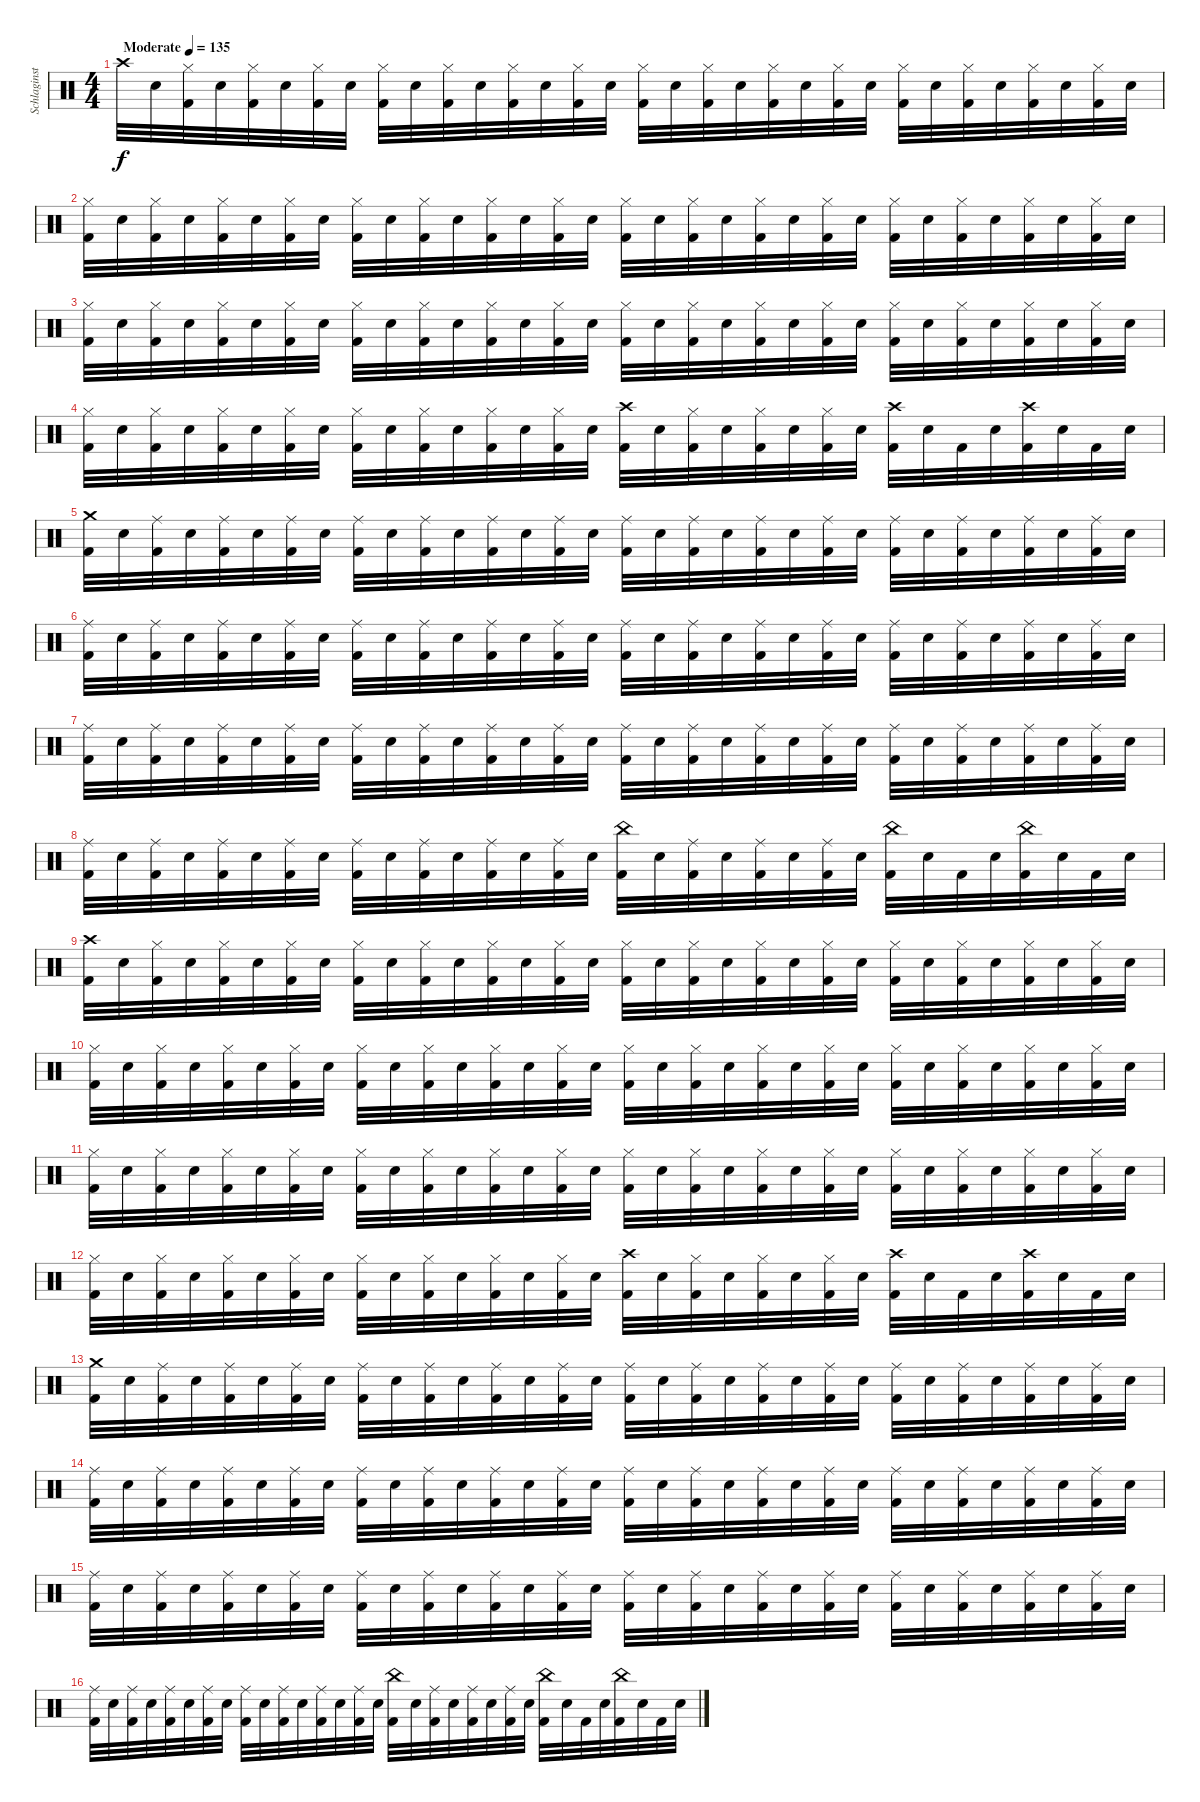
\track ("Schlaginstrumente - Auswahl" "Schlaginst") {instrument percussion}
\staff {score}
\articulation defaults
\ts (4 4)
\tempo (135 "Moderate")
\clef neutral
\ks c "Crash high (hit)".32{dy f} "Electric Snare (hit)".32
("Hi-Hat (closed)" "Kick (hit) 2").32 "Electric Snare (hit)".32 ("Hi-Hat (closed)" "Kick (hit) 2").32 "Electric Snare (hit)".32 ("Hi-Hat (closed)" "Kick (hit) 2").32 "Electric Snare (hit)".32 ("Hi-Hat (closed)" "Kick (hit) 2").32 "Electric Snare (hit)".32 ("Hi-Hat (closed)" "Kick (hit) 2").32 "Electric Snare (hit)".32 ("Hi-Hat (closed)" "Kick (hit) 2").32 "Electric Snare (hit)".32 ("Hi-Hat (closed)" "Kick (hit) 2").32 "Electric Snare (hit)".32 ("Hi-Hat (closed)" "Kick (hit) 2").32 "Electric Snare (hit)".32 ("Hi-Hat (closed)" "Kick (hit) 2").32 "Electric Snare (hit)".32 ("Hi-Hat (closed)" "Kick (hit) 2").32 "Electric Snare (hit)".32 ("Hi-Hat (closed)" "Kick (hit) 2").32 "Electric Snare (hit)".32 ("Hi-Hat (closed)" "Kick (hit) 2").32 "Electric Snare (hit)".32 ("Hi-Hat (closed)" "Kick (hit) 2").32 "Electric Snare (hit)".32 ("Hi-Hat (closed)" "Kick (hit) 2").32 "Electric Snare (hit)".32 ("Hi-Hat (closed)" "Kick (hit) 2").32 "Electric Snare (hit)".32 |
("Hi-Hat (closed)" "Kick (hit) 2").32 "Electric Snare (hit)".32 ("Hi-Hat (closed)" "Kick (hit) 2").32 "Electric Snare (hit)".32 ("Hi-Hat (closed)" "Kick (hit) 2").32 "Electric Snare (hit)".32 ("Hi-Hat (closed)" "Kick (hit) 2").32 "Electric Snare (hit)".32 ("Hi-Hat (closed)" "Kick (hit) 2").32 "Electric Snare (hit)".32 ("Hi-Hat (closed)" "Kick (hit) 2").32 "Electric Snare (hit)".32 ("Hi-Hat (closed)" "Kick (hit) 2").32 "Electric Snare (hit)".32 ("Hi-Hat (closed)" "Kick (hit) 2").32 "Electric Snare (hit)".32 ("Hi-Hat (closed)" "Kick (hit) 2").32 "Electric Snare (hit)".32 ("Hi-Hat (closed)" "Kick (hit) 2").32 "Electric Snare (hit)".32 ("Hi-Hat (closed)" "Kick (hit) 2").32 "Electric Snare (hit)".32 ("Hi-Hat (closed)" "Kick (hit) 2").32 "Electric Snare (hit)".32 ("Hi-Hat (closed)" "Kick (hit) 2").32 "Electric Snare (hit)".32 ("Hi-Hat (closed)" "Kick (hit) 2").32 "Electric Snare (hit)".32 ("Hi-Hat (closed)" "Kick (hit) 2").32 "Electric Snare (hit)".32 ("Hi-Hat (closed)" "Kick (hit) 2").32 "Electric Snare (hit)".32 |
("Hi-Hat (closed)" "Kick (hit) 2").32 "Electric Snare (hit)".32 ("Hi-Hat (closed)" "Kick (hit) 2").32 "Electric Snare (hit)".32 ("Hi-Hat (closed)" "Kick (hit) 2").32 "Electric Snare (hit)".32 ("Hi-Hat (closed)" "Kick (hit) 2").32 "Electric Snare (hit)".32 ("Hi-Hat (closed)" "Kick (hit) 2").32 "Electric Snare (hit)".32 ("Hi-Hat (closed)" "Kick (hit) 2").32 "Electric Snare (hit)".32 ("Hi-Hat (closed)" "Kick (hit) 2").32 "Electric Snare (hit)".32 ("Hi-Hat (closed)" "Kick (hit) 2").32 "Electric Snare (hit)".32 ("Hi-Hat (closed)" "Kick (hit) 2").32 "Electric Snare (hit)".32 ("Hi-Hat (closed)" "Kick (hit) 2").32 "Electric Snare (hit)".32 ("Hi-Hat (closed)" "Kick (hit) 2").32 "Electric Snare (hit)".32 ("Hi-Hat (closed)" "Kick (hit) 2").32 "Electric Snare (hit)".32 ("Hi-Hat (closed)" "Kick (hit) 2").32 "Electric Snare (hit)".32 ("Hi-Hat (closed)" "Kick (hit) 2").32 "Electric Snare (hit)".32 ("Hi-Hat (closed)" "Kick (hit) 2").32 "Electric Snare (hit)".32 ("Hi-Hat (closed)" "Kick (hit) 2").32 "Electric Snare (hit)".32 |
("Hi-Hat (closed)" "Kick (hit) 2").32 "Electric Snare (hit)".32 ("Hi-Hat (closed)" "Kick (hit) 2").32 "Electric Snare (hit)".32 ("Hi-Hat (closed)" "Kick (hit) 2").32 "Electric Snare (hit)".32 ("Hi-Hat (closed)" "Kick (hit) 2").32 "Electric Snare (hit)".32 ("Hi-Hat (closed)" "Kick (hit) 2").32 "Electric Snare (hit)".32 ("Hi-Hat (closed)" "Kick (hit) 2").32 "Electric Snare (hit)".32 ("Hi-Hat (closed)" "Kick (hit) 2").32 "Electric Snare (hit)".32 ("Hi-Hat (closed)" "Kick (hit) 2").32 "Electric Snare (hit)".32 ("Crash high (hit)" "Kick (hit) 2").32 "Electric Snare (hit)".32 ("Hi-Hat (closed)" "Kick (hit) 2").32 "Electric Snare (hit)".32 ("Hi-Hat (closed)" "Kick (hit) 2").32 "Electric Snare (hit)".32 ("Hi-Hat (closed)" "Kick (hit) 2").32 "Electric Snare (hit)".32 ("Crash high (hit)" "Kick (hit) 2").32 "Electric Snare (hit)".32 "Kick (hit) 2".32 "Electric Snare (hit)".32 ("Crash high (hit)" "Kick (hit) 2").32 "Electric Snare (hit)".32 "Kick (hit) 2".32 "Electric Snare (hit)".32 |
("Crash medium (hit)" "Kick (hit) 2").32 "Electric Snare (hit)".32 ("Ride (middle)" "Kick (hit) 2").32 "Electric Snare (hit)".32 ("Ride (middle)" "Kick (hit) 2").32 "Electric Snare (hit)".32 ("Ride (middle)" "Kick (hit) 2").32 "Electric Snare (hit)".32 ("Ride (middle)" "Kick (hit) 2").32 "Electric Snare (hit)".32 ("Ride (middle)" "Kick (hit) 2").32 "Electric Snare (hit)".32 ("Ride (middle)" "Kick (hit) 2").32 "Electric Snare (hit)".32 ("Ride (middle)" "Kick (hit) 2").32 "Electric Snare (hit)".32 ("Ride (middle)" "Kick (hit) 2").32 "Electric Snare (hit)".32 ("Ride (middle)" "Kick (hit) 2").32 "Electric Snare (hit)".32 ("Ride (middle)" "Kick (hit) 2").32 "Electric Snare (hit)".32 ("Ride (middle)" "Kick (hit) 2").32 "Electric Snare (hit)".32 ("Ride (middle)" "Kick (hit) 2").32 "Electric Snare (hit)".32 ("Ride (middle)" "Kick (hit) 2").32 "Electric Snare (hit)".32 ("Ride (middle)" "Kick (hit) 2").32 "Electric Snare (hit)".32 ("Ride (middle)" "Kick (hit) 2").32 "Electric Snare (hit)".32 |
("Ride (middle)" "Kick (hit) 2").32 "Electric Snare (hit)".32 ("Ride (middle)" "Kick (hit) 2").32 "Electric Snare (hit)".32 ("Ride (middle)" "Kick (hit) 2").32 "Electric Snare (hit)".32 ("Ride (middle)" "Kick (hit) 2").32 "Electric Snare (hit)".32 ("Ride (middle)" "Kick (hit) 2").32 "Electric Snare (hit)".32 ("Ride (middle)" "Kick (hit) 2").32 "Electric Snare (hit)".32 ("Ride (middle)" "Kick (hit) 2").32 "Electric Snare (hit)".32 ("Ride (middle)" "Kick (hit) 2").32 "Electric Snare (hit)".32 ("Ride (middle)" "Kick (hit) 2").32 "Electric Snare (hit)".32 ("Ride (middle)" "Kick (hit) 2").32 "Electric Snare (hit)".32 ("Ride (middle)" "Kick (hit) 2").32 "Electric Snare (hit)".32 ("Ride (middle)" "Kick (hit) 2").32 "Electric Snare (hit)".32 ("Ride (middle)" "Kick (hit) 2").32 "Electric Snare (hit)".32 ("Ride (middle)" "Kick (hit) 2").32 "Electric Snare (hit)".32 ("Ride (middle)" "Kick (hit) 2").32 "Electric Snare (hit)".32 ("Ride (middle)" "Kick (hit) 2").32 "Electric Snare (hit)".32 |
("Ride (middle)" "Kick (hit) 2").32 "Electric Snare (hit)".32 ("Ride (middle)" "Kick (hit) 2").32 "Electric Snare (hit)".32 ("Ride (middle)" "Kick (hit) 2").32 "Electric Snare (hit)".32 ("Ride (middle)" "Kick (hit) 2").32 "Electric Snare (hit)".32 ("Ride (middle)" "Kick (hit) 2").32 "Electric Snare (hit)".32 ("Ride (middle)" "Kick (hit) 2").32 "Electric Snare (hit)".32 ("Ride (middle)" "Kick (hit) 2").32 "Electric Snare (hit)".32 ("Ride (middle)" "Kick (hit) 2").32 "Electric Snare (hit)".32 ("Ride (middle)" "Kick (hit) 2").32 "Electric Snare (hit)".32 ("Ride (middle)" "Kick (hit) 2").32 "Electric Snare (hit)".32 ("Ride (middle)" "Kick (hit) 2").32 "Electric Snare (hit)".32 ("Ride (middle)" "Kick (hit) 2").32 "Electric Snare (hit)".32 ("Ride (middle)" "Kick (hit) 2").32 "Electric Snare (hit)".32 ("Ride (middle)" "Kick (hit) 2").32 "Electric Snare (hit)".32 ("Ride (middle)" "Kick (hit) 2").32 "Electric Snare (hit)".32 ("Ride (middle)" "Kick (hit) 2").32 "Electric Snare (hit)".32 |
("Ride (middle)" "Kick (hit) 2").32 "Electric Snare (hit)".32 ("Ride (middle)" "Kick (hit) 2").32 "Electric Snare (hit)".32 ("Ride (middle)" "Kick (hit) 2").32 "Electric Snare (hit)".32 ("Ride (middle)" "Kick (hit) 2").32 "Electric Snare (hit)".32 ("Ride (middle)" "Kick (hit) 2").32 "Electric Snare (hit)".32 ("Ride (middle)" "Kick (hit) 2").32 "Electric Snare (hit)".32 ("Ride (middle)" "Kick (hit) 2").32 "Electric Snare (hit)".32 ("Ride (middle)" "Kick (hit) 2").32 "Electric Snare (hit)".32 ("China (hit)" "Kick (hit) 2").32 "Electric Snare (hit)".32 ("Ride (middle)" "Kick (hit) 2").32 "Electric Snare (hit)".32 ("Ride (middle)" "Kick (hit) 2").32 "Electric Snare (hit)".32 ("Ride (middle)" "Kick (hit) 2").32 "Electric Snare (hit)".32 ("China (hit)" "Kick (hit) 2").32 "Electric Snare (hit)".32 "Kick (hit) 2".32 "Electric Snare (hit)".32 ("China (hit)" "Kick (hit) 2").32 "Electric Snare (hit)".32 "Kick (hit) 2".32 "Electric Snare (hit)".32 |
("Crash high (hit)" "Kick (hit) 2").32 "Electric Snare (hit)".32 ("Hi-Hat (closed)" "Kick (hit) 2").32 "Electric Snare (hit)".32 ("Hi-Hat (closed)" "Kick (hit) 2").32 "Electric Snare (hit)".32 ("Hi-Hat (closed)" "Kick (hit) 2").32 "Electric Snare (hit)".32 ("Hi-Hat (closed)" "Kick (hit) 2").32 "Electric Snare (hit)".32 ("Hi-Hat (closed)" "Kick (hit) 2").32 "Electric Snare (hit)".32 ("Hi-Hat (closed)" "Kick (hit) 2").32 "Electric Snare (hit)".32 ("Hi-Hat (closed)" "Kick (hit) 2").32 "Electric Snare (hit)".32 ("Hi-Hat (closed)" "Kick (hit) 2").32 "Electric Snare (hit)".32 ("Hi-Hat (closed)" "Kick (hit) 2").32 "Electric Snare (hit)".32 ("Hi-Hat (closed)" "Kick (hit) 2").32 "Electric Snare (hit)".32 ("Hi-Hat (closed)" "Kick (hit) 2").32 "Electric Snare (hit)".32 ("Hi-Hat (closed)" "Kick (hit) 2").32 "Electric Snare (hit)".32 ("Hi-Hat (closed)" "Kick (hit) 2").32 "Electric Snare (hit)".32 ("Hi-Hat (closed)" "Kick (hit) 2").32 "Electric Snare (hit)".32 ("Hi-Hat (closed)" "Kick (hit) 2").32 "Electric Snare (hit)".32 |
("Hi-Hat (closed)" "Kick (hit) 2").32 "Electric Snare (hit)".32 ("Hi-Hat (closed)" "Kick (hit) 2").32 "Electric Snare (hit)".32 ("Hi-Hat (closed)" "Kick (hit) 2").32 "Electric Snare (hit)".32 ("Hi-Hat (closed)" "Kick (hit) 2").32 "Electric Snare (hit)".32 ("Hi-Hat (closed)" "Kick (hit) 2").32 "Electric Snare (hit)".32 ("Hi-Hat (closed)" "Kick (hit) 2").32 "Electric Snare (hit)".32 ("Hi-Hat (closed)" "Kick (hit) 2").32 "Electric Snare (hit)".32 ("Hi-Hat (closed)" "Kick (hit) 2").32 "Electric Snare (hit)".32 ("Hi-Hat (closed)" "Kick (hit) 2").32 "Electric Snare (hit)".32 ("Hi-Hat (closed)" "Kick (hit) 2").32 "Electric Snare (hit)".32 ("Hi-Hat (closed)" "Kick (hit) 2").32 "Electric Snare (hit)".32 ("Hi-Hat (closed)" "Kick (hit) 2").32 "Electric Snare (hit)".32 ("Hi-Hat (closed)" "Kick (hit) 2").32 "Electric Snare (hit)".32 ("Hi-Hat (closed)" "Kick (hit) 2").32 "Electric Snare (hit)".32 ("Hi-Hat (closed)" "Kick (hit) 2").32 "Electric Snare (hit)".32 ("Hi-Hat (closed)" "Kick (hit) 2").32 "Electric Snare (hit)".32 |
("Hi-Hat (closed)" "Kick (hit) 2").32 "Electric Snare (hit)".32 ("Hi-Hat (closed)" "Kick (hit) 2").32 "Electric Snare (hit)".32 ("Hi-Hat (closed)" "Kick (hit) 2").32 "Electric Snare (hit)".32 ("Hi-Hat (closed)" "Kick (hit) 2").32 "Electric Snare (hit)".32 ("Hi-Hat (closed)" "Kick (hit) 2").32 "Electric Snare (hit)".32 ("Hi-Hat (closed)" "Kick (hit) 2").32 "Electric Snare (hit)".32 ("Hi-Hat (closed)" "Kick (hit) 2").32 "Electric Snare (hit)".32 ("Hi-Hat (closed)" "Kick (hit) 2").32 "Electric Snare (hit)".32 ("Hi-Hat (closed)" "Kick (hit) 2").32 "Electric Snare (hit)".32 ("Hi-Hat (closed)" "Kick (hit) 2").32 "Electric Snare (hit)".32 ("Hi-Hat (closed)" "Kick (hit) 2").32 "Electric Snare (hit)".32 ("Hi-Hat (closed)" "Kick (hit) 2").32 "Electric Snare (hit)".32 ("Hi-Hat (closed)" "Kick (hit) 2").32 "Electric Snare (hit)".32 ("Hi-Hat (closed)" "Kick (hit) 2").32 "Electric Snare (hit)".32 ("Hi-Hat (closed)" "Kick (hit) 2").32 "Electric Snare (hit)".32 ("Hi-Hat (closed)" "Kick (hit) 2").32 "Electric Snare (hit)".32 |
("Hi-Hat (closed)" "Kick (hit) 2").32 "Electric Snare (hit)".32 ("Hi-Hat (closed)" "Kick (hit) 2").32 "Electric Snare (hit)".32 ("Hi-Hat (closed)" "Kick (hit) 2").32 "Electric Snare (hit)".32 ("Hi-Hat (closed)" "Kick (hit) 2").32 "Electric Snare (hit)".32 ("Hi-Hat (closed)" "Kick (hit) 2").32 "Electric Snare (hit)".32 ("Hi-Hat (closed)" "Kick (hit) 2").32 "Electric Snare (hit)".32 ("Hi-Hat (closed)" "Kick (hit) 2").32 "Electric Snare (hit)".32 ("Hi-Hat (closed)" "Kick (hit) 2").32 "Electric Snare (hit)".32 ("Crash high (hit)" "Kick (hit) 2").32 "Electric Snare (hit)".32 ("Hi-Hat (closed)" "Kick (hit) 2").32 "Electric Snare (hit)".32 ("Hi-Hat (closed)" "Kick (hit) 2").32 "Electric Snare (hit)".32 ("Hi-Hat (closed)" "Kick (hit) 2").32 "Electric Snare (hit)".32 ("Crash high (hit)" "Kick (hit) 2").32 "Electric Snare (hit)".32 "Kick (hit) 2".32 "Electric Snare (hit)".32 ("Crash high (hit)" "Kick (hit) 2").32 "Electric Snare (hit)".32 "Kick (hit) 2".32 "Electric Snare (hit)".32 |
("Crash medium (hit)" "Kick (hit) 2").32 "Electric Snare (hit)".32 ("Ride (middle)" "Kick (hit) 2").32 "Electric Snare (hit)".32 ("Ride (middle)" "Kick (hit) 2").32 "Electric Snare (hit)".32 ("Ride (middle)" "Kick (hit) 2").32 "Electric Snare (hit)".32 ("Ride (middle)" "Kick (hit) 2").32 "Electric Snare (hit)".32 ("Ride (middle)" "Kick (hit) 2").32 "Electric Snare (hit)".32 ("Ride (middle)" "Kick (hit) 2").32 "Electric Snare (hit)".32 ("Ride (middle)" "Kick (hit) 2").32 "Electric Snare (hit)".32 ("Ride (middle)" "Kick (hit) 2").32 "Electric Snare (hit)".32 ("Ride (middle)" "Kick (hit) 2").32 "Electric Snare (hit)".32 ("Ride (middle)" "Kick (hit) 2").32 "Electric Snare (hit)".32 ("Ride (middle)" "Kick (hit) 2").32 "Electric Snare (hit)".32 ("Ride (middle)" "Kick (hit) 2").32 "Electric Snare (hit)".32 ("Ride (middle)" "Kick (hit) 2").32 "Electric Snare (hit)".32 ("Ride (middle)" "Kick (hit) 2").32 "Electric Snare (hit)".32 ("Ride (middle)" "Kick (hit) 2").32 "Electric Snare (hit)".32 |
("Ride (middle)" "Kick (hit) 2").32 "Electric Snare (hit)".32 ("Ride (middle)" "Kick (hit) 2").32 "Electric Snare (hit)".32 ("Ride (middle)" "Kick (hit) 2").32 "Electric Snare (hit)".32 ("Ride (middle)" "Kick (hit) 2").32 "Electric Snare (hit)".32 ("Ride (middle)" "Kick (hit) 2").32 "Electric Snare (hit)".32 ("Ride (middle)" "Kick (hit) 2").32 "Electric Snare (hit)".32 ("Ride (middle)" "Kick (hit) 2").32 "Electric Snare (hit)".32 ("Ride (middle)" "Kick (hit) 2").32 "Electric Snare (hit)".32 ("Ride (middle)" "Kick (hit) 2").32 "Electric Snare (hit)".32 ("Ride (middle)" "Kick (hit) 2").32 "Electric Snare (hit)".32 ("Ride (middle)" "Kick (hit) 2").32 "Electric Snare (hit)".32 ("Ride (middle)" "Kick (hit) 2").32 "Electric Snare (hit)".32 ("Ride (middle)" "Kick (hit) 2").32 "Electric Snare (hit)".32 ("Ride (middle)" "Kick (hit) 2").32 "Electric Snare (hit)".32 ("Ride (middle)" "Kick (hit) 2").32 "Electric Snare (hit)".32 ("Ride (middle)" "Kick (hit) 2").32 "Electric Snare (hit)".32 |
("Ride (middle)" "Kick (hit) 2").32 "Electric Snare (hit)".32 ("Ride (middle)" "Kick (hit) 2").32 "Electric Snare (hit)".32 ("Ride (middle)" "Kick (hit) 2").32 "Electric Snare (hit)".32 ("Ride (middle)" "Kick (hit) 2").32 "Electric Snare (hit)".32 ("Ride (middle)" "Kick (hit) 2").32 "Electric Snare (hit)".32 ("Ride (middle)" "Kick (hit) 2").32 "Electric Snare (hit)".32 ("Ride (middle)" "Kick (hit) 2").32 "Electric Snare (hit)".32 ("Ride (middle)" "Kick (hit) 2").32 "Electric Snare (hit)".32 ("Ride (middle)" "Kick (hit) 2").32 "Electric Snare (hit)".32 ("Ride (middle)" "Kick (hit) 2").32 "Electric Snare (hit)".32 ("Ride (middle)" "Kick (hit) 2").32 "Electric Snare (hit)".32 ("Ride (middle)" "Kick (hit) 2").32 "Electric Snare (hit)".32 ("Ride (middle)" "Kick (hit) 2").32 "Electric Snare (hit)".32 ("Ride (middle)" "Kick (hit) 2").32 "Electric Snare (hit)".32 ("Ride (middle)" "Kick (hit) 2").32 "Electric Snare (hit)".32 ("Ride (middle)" "Kick (hit) 2").32 "Electric Snare (hit)".32 |
("Ride (middle)" "Kick (hit) 2").32 "Electric Snare (hit)".32 ("Ride (middle)" "Kick (hit) 2").32 "Electric Snare (hit)".32 ("Ride (middle)" "Kick (hit) 2").32 "Electric Snare (hit)".32 ("Ride (middle)" "Kick (hit) 2").32 "Electric Snare (hit)".32 ("Ride (middle)" "Kick (hit) 2").32 "Electric Snare (hit)".32 ("Ride (middle)" "Kick (hit) 2").32 "Electric Snare (hit)".32 ("Ride (middle)" "Kick (hit) 2").32 "Electric Snare (hit)".32 ("Ride (middle)" "Kick (hit) 2").32 "Electric Snare (hit)".32 ("China (hit)" "Kick (hit) 2").32 "Electric Snare (hit)".32 ("Ride (middle)" "Kick (hit) 2").32 "Electric Snare (hit)".32 ("Ride (middle)" "Kick (hit) 2").32 "Electric Snare (hit)".32 ("Ride (middle)" "Kick (hit) 2").32 "Electric Snare (hit)".32 ("China (hit)" "Kick (hit) 2").32 "Electric Snare (hit)".32 "Kick (hit) 2".32 "Electric Snare (hit)".32 ("China (hit)" "Kick (hit) 2").32 "Electric Snare (hit)".32 "Kick (hit) 2".32 "Electric Snare (hit)".32
